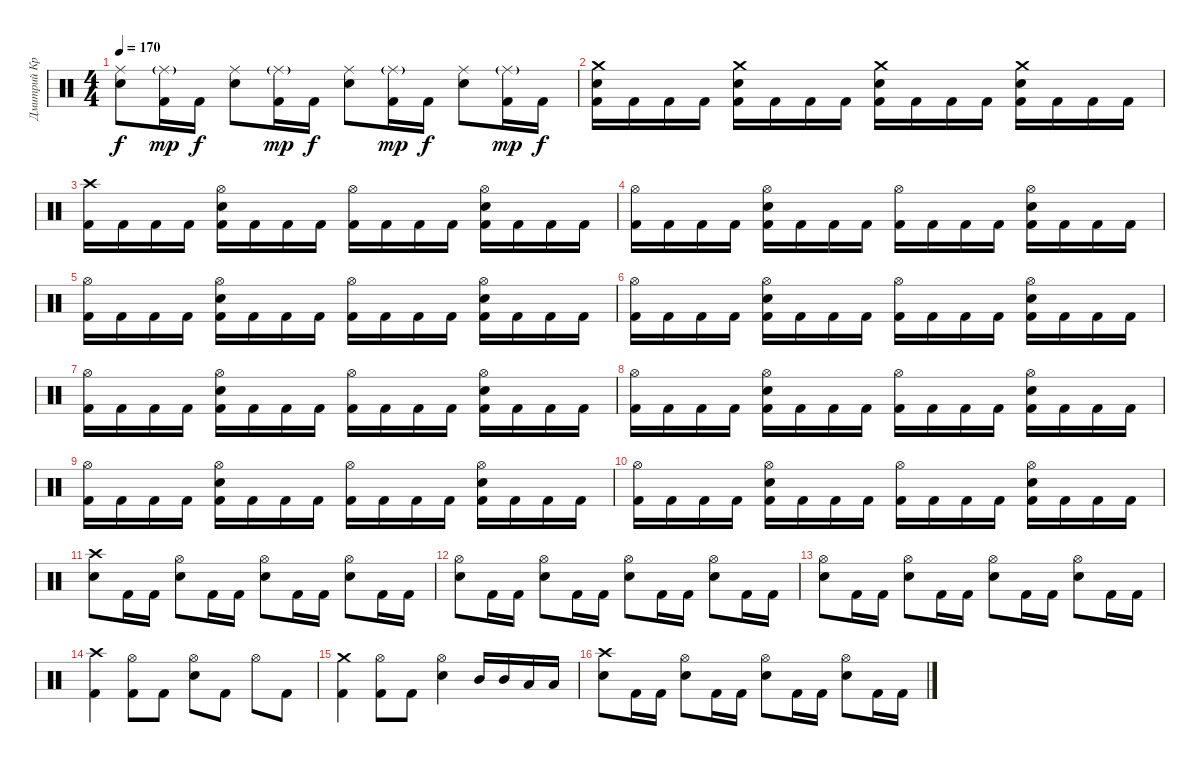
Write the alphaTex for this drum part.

\track ("Дмитрий Кривенков" "Дмитрий Кр") {instrument percussion}
\staff {score}
\articulation defaults
\ts (4 4)
\tempo 170
\clef neutral
\ks c
("Ride (middle)" "Electric Snare (hit)").8{dy f} ("Ride (middle)"{g} "Kick (hit) 2").16{dy mp} "Kick (hit) 2".16{dy f} ("Ride (middle)" "Electric Snare (hit)").8 ("Ride (middle)"{g} "Kick (hit) 2").16{dy mp} "Kick (hit) 2".16{dy f} ("Ride (middle)" "Electric Snare (hit)").8 ("Ride (middle)"{g} "Kick (hit) 2").16{dy mp} "Kick (hit) 2".16{dy f} ("Ride (middle)" "Electric Snare (hit)").8 ("Ride (middle)"{g} "Kick (hit) 2").16{dy mp} "Kick (hit) 2".16{dy f} |
("Crash medium (hit)" "Electric Snare (hit)" "Kick (hit) 2").16 "Kick (hit) 2".16 "Kick (hit) 2".16 "Kick (hit) 2".16 ("Crash medium (hit)" "Electric Snare (hit)" "Kick (hit) 2").16 "Kick (hit) 2".16 "Kick (hit) 2".16 "Kick (hit) 2".16 ("Crash medium (hit)" "Electric Snare (hit)" "Kick (hit) 2").16 "Kick (hit) 2".16 "Kick (hit) 2".16 "Kick (hit) 2".16 ("Crash medium (hit)" "Electric Snare (hit)" "Kick (hit) 2").16 "Kick (hit) 2".16 "Kick (hit) 2".16 "Kick (hit) 2".16 |
("Crash high (hit)" "Kick (hit) 2").16 "Kick (hit) 2".16 "Kick (hit) 2".16 "Kick (hit) 2".16 ("Hi-Hat (open)" "Electric Snare (hit)" "Kick (hit) 2").16 "Kick (hit) 2".16 "Kick (hit) 2".16 "Kick (hit) 2".16 ("Hi-Hat (open)" "Kick (hit) 2").16 "Kick (hit) 2".16 "Kick (hit) 2".16 "Kick (hit) 2".16 ("Hi-Hat (open)" "Electric Snare (hit)" "Kick (hit) 2").16 "Kick (hit) 2".16 "Kick (hit) 2".16 "Kick (hit) 2".16 |
("Hi-Hat (open)" "Kick (hit) 2").16 "Kick (hit) 2".16 "Kick (hit) 2".16 "Kick (hit) 2".16 ("Hi-Hat (open)" "Electric Snare (hit)" "Kick (hit) 2").16 "Kick (hit) 2".16 "Kick (hit) 2".16 "Kick (hit) 2".16 ("Hi-Hat (open)" "Kick (hit) 2").16 "Kick (hit) 2".16 "Kick (hit) 2".16 "Kick (hit) 2".16 ("Hi-Hat (open)" "Electric Snare (hit)" "Kick (hit) 2").16 "Kick (hit) 2".16 "Kick (hit) 2".16 "Kick (hit) 2".16 |
("Hi-Hat (open)" "Kick (hit) 2").16 "Kick (hit) 2".16 "Kick (hit) 2".16 "Kick (hit) 2".16 ("Hi-Hat (open)" "Electric Snare (hit)" "Kick (hit) 2").16 "Kick (hit) 2".16 "Kick (hit) 2".16 "Kick (hit) 2".16 ("Hi-Hat (open)" "Kick (hit) 2").16 "Kick (hit) 2".16 "Kick (hit) 2".16 "Kick (hit) 2".16 ("Hi-Hat (open)" "Electric Snare (hit)" "Kick (hit) 2").16 "Kick (hit) 2".16 "Kick (hit) 2".16 "Kick (hit) 2".16 |
("Hi-Hat (open)" "Kick (hit) 2").16 "Kick (hit) 2".16 "Kick (hit) 2".16 "Kick (hit) 2".16 ("Hi-Hat (open)" "Electric Snare (hit)" "Kick (hit) 2").16 "Kick (hit) 2".16 "Kick (hit) 2".16 "Kick (hit) 2".16 ("Hi-Hat (open)" "Kick (hit) 2").16 "Kick (hit) 2".16 "Kick (hit) 2".16 "Kick (hit) 2".16 ("Hi-Hat (open)" "Electric Snare (hit)" "Kick (hit) 2").16 "Kick (hit) 2".16 "Kick (hit) 2".16 "Kick (hit) 2".16 |
("Hi-Hat (open)" "Kick (hit) 2").16 "Kick (hit) 2".16 "Kick (hit) 2".16 "Kick (hit) 2".16 ("Hi-Hat (open)" "Electric Snare (hit)" "Kick (hit) 2").16 "Kick (hit) 2".16 "Kick (hit) 2".16 "Kick (hit) 2".16 ("Hi-Hat (open)" "Kick (hit) 2").16 "Kick (hit) 2".16 "Kick (hit) 2".16 "Kick (hit) 2".16 ("Hi-Hat (open)" "Electric Snare (hit)" "Kick (hit) 2").16 "Kick (hit) 2".16 "Kick (hit) 2".16 "Kick (hit) 2".16 |
("Hi-Hat (open)" "Kick (hit) 2").16 "Kick (hit) 2".16 "Kick (hit) 2".16 "Kick (hit) 2".16 ("Hi-Hat (open)" "Electric Snare (hit)" "Kick (hit) 2").16 "Kick (hit) 2".16 "Kick (hit) 2".16 "Kick (hit) 2".16 ("Hi-Hat (open)" "Kick (hit) 2").16 "Kick (hit) 2".16 "Kick (hit) 2".16 "Kick (hit) 2".16 ("Hi-Hat (open)" "Electric Snare (hit)" "Kick (hit) 2").16 "Kick (hit) 2".16 "Kick (hit) 2".16 "Kick (hit) 2".16 |
("Hi-Hat (open)" "Kick (hit) 2").16 "Kick (hit) 2".16 "Kick (hit) 2".16 "Kick (hit) 2".16 ("Hi-Hat (open)" "Electric Snare (hit)" "Kick (hit) 2").16 "Kick (hit) 2".16 "Kick (hit) 2".16 "Kick (hit) 2".16 ("Hi-Hat (open)" "Kick (hit) 2").16 "Kick (hit) 2".16 "Kick (hit) 2".16 "Kick (hit) 2".16 ("Hi-Hat (open)" "Electric Snare (hit)" "Kick (hit) 2").16 "Kick (hit) 2".16 "Kick (hit) 2".16 "Kick (hit) 2".16 |
("Hi-Hat (open)" "Kick (hit) 2").16 "Kick (hit) 2".16 "Kick (hit) 2".16 "Kick (hit) 2".16 ("Hi-Hat (open)" "Electric Snare (hit)" "Kick (hit) 2").16 "Kick (hit) 2".16 "Kick (hit) 2".16 "Kick (hit) 2".16 ("Hi-Hat (open)" "Kick (hit) 2").16 "Kick (hit) 2".16 "Kick (hit) 2".16 "Kick (hit) 2".16 ("Hi-Hat (open)" "Electric Snare (hit)" "Kick (hit) 2").16 "Kick (hit) 2".16 "Kick (hit) 2".16 "Kick (hit) 2".16 |
("Crash high (hit)" "Electric Snare (hit)").8 "Kick (hit) 2".16 "Kick (hit) 2".16 ("Hi-Hat (open)" "Electric Snare (hit)").8 "Kick (hit) 2".16 "Kick (hit) 2".16 ("Hi-Hat (open)" "Electric Snare (hit)").8 "Kick (hit) 2".16 "Kick (hit) 2".16 ("Hi-Hat (open)" "Electric Snare (hit)").8 "Kick (hit) 2".16 "Kick (hit) 2".16 |
("Hi-Hat (open)" "Electric Snare (hit)").8 "Kick (hit) 2".16 "Kick (hit) 2".16 ("Hi-Hat (open)" "Electric Snare (hit)").8 "Kick (hit) 2".16 "Kick (hit) 2".16 ("Hi-Hat (open)" "Electric Snare (hit)").8 "Kick (hit) 2".16 "Kick (hit) 2".16 ("Hi-Hat (open)" "Electric Snare (hit)").8 "Kick (hit) 2".16 "Kick (hit) 2".16 |
("Hi-Hat (open)" "Electric Snare (hit)").8 "Kick (hit) 2".16 "Kick (hit) 2".16 ("Hi-Hat (open)" "Electric Snare (hit)").8 "Kick (hit) 2".16 "Kick (hit) 2".16 ("Hi-Hat (open)" "Electric Snare (hit)").8 "Kick (hit) 2".16 "Kick (hit) 2".16 ("Hi-Hat (open)" "Electric Snare (hit)").8 "Kick (hit) 2".16 "Kick (hit) 2".16 |
("Crash high (hit)" "Kick (hit) 2").4 ("Hi-Hat (open)" "Kick (hit) 2").8 "Kick (hit) 2".8 ("Hi-Hat (open)" "Electric Snare (hit)").8 "Kick (hit) 2".8 "Hi-Hat (open)".8 "Kick (hit) 2".8 |
("Crash medium (hit)" "Kick (hit) 2").4 ("Hi-Hat (open)" "Kick (hit) 2").8 "Kick (hit) 2".8 ("Hi-Hat (open)" "Electric Snare (hit)").4 "Mid Tom (hit)".16 "Mid Tom (hit)".16 "Low Tom (hit)".16 "Low Tom (hit)".16 |
("Crash high (hit)" "Electric Snare (hit)").8 "Kick (hit) 2".16 "Kick (hit) 2".16 ("Hi-Hat (open)" "Electric Snare (hit)").8 "Kick (hit) 2".16 "Kick (hit) 2".16 ("Hi-Hat (open)" "Electric Snare (hit)").8 "Kick (hit) 2".16 "Kick (hit) 2".16 ("Hi-Hat (open)" "Electric Snare (hit)").8 "Kick (hit) 2".16 "Kick (hit) 2".16
